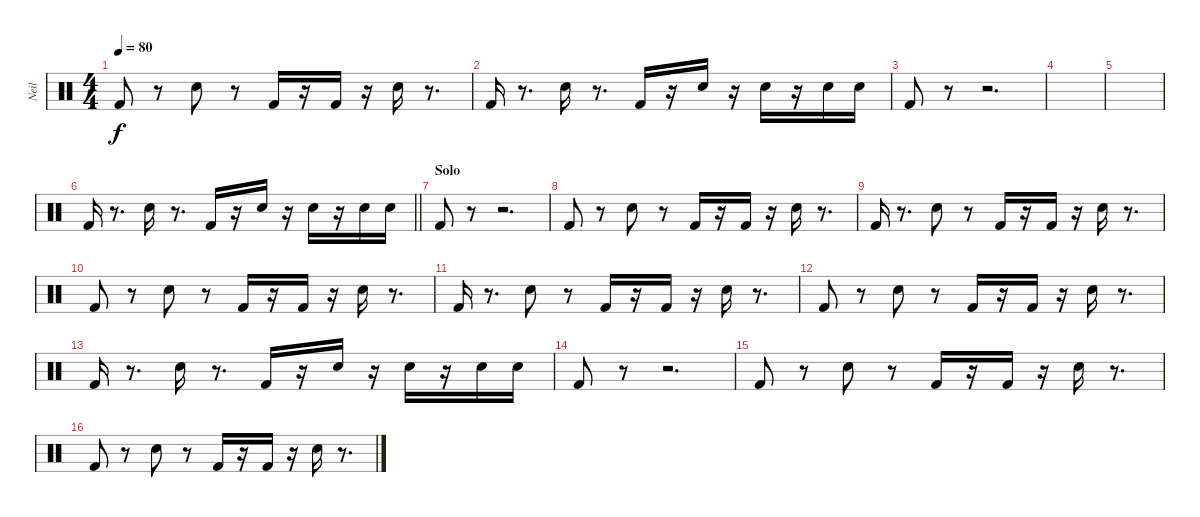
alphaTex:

\track ("Neil" "Neil") {instrument percussion}
\staff {score}
\articulation defaults
\ts (4 4)
\tempo 80
\clef neutral
\ks c "Kick (hit) 2".8{dy f}
r.8 "Electric Snare (hit)".8 r.8 "Kick (hit) 2".16 r.16 "Kick (hit) 2".16 r.16 "Electric Snare (hit)".16 r.8{d} |
"Kick (hit) 2".16 r.8{d} "Electric Snare (hit)".16 r.8{d} "Kick (hit) 2".16 r.16 "Electric Snare (hit)".16 r.16 "Electric Snare (hit)".16 r.16 "Electric Snare (hit)".16 "Electric Snare (hit)".16 |
"Kick (hit) 2".8 r.8 r.2{d} |
|
|
\barLineRight lightlight "Kick (hit) 2".16
r.8{d} "Electric Snare (hit)".16 r.8{d} "Kick (hit) 2".16 r.16 "Electric Snare (hit)".16 r.16 "Electric Snare (hit)".16 r.16 "Electric Snare (hit)".16 "Electric Snare (hit)".16 |
\section ("" "Solo")
"Kick (hit) 2".8 r.8 r.2{d} |
"Kick (hit) 2".8 r.8 "Electric Snare (hit)".8 r.8 "Kick (hit) 2".16 r.16 "Kick (hit) 2".16 r.16 "Electric Snare (hit)".16 r.8{d} |
"Kick (hit) 2".16 r.8{d} "Electric Snare (hit)".8 r.8 "Kick (hit) 2".16 r.16 "Kick (hit) 2".16 r.16 "Electric Snare (hit)".16 r.8{d} |
"Kick (hit) 2".8 r.8 "Electric Snare (hit)".8 r.8 "Kick (hit) 2".16 r.16 "Kick (hit) 2".16 r.16 "Electric Snare (hit)".16 r.8{d} |
"Kick (hit) 2".16 r.8{d} "Electric Snare (hit)".8 r.8 "Kick (hit) 2".16 r.16 "Kick (hit) 2".16 r.16 "Electric Snare (hit)".16 r.8{d} |
"Kick (hit) 2".8 r.8 "Electric Snare (hit)".8 r.8 "Kick (hit) 2".16 r.16 "Kick (hit) 2".16 r.16 "Electric Snare (hit)".16 r.8{d} |
"Kick (hit) 2".16 r.8{d} "Electric Snare (hit)".16 r.8{d} "Kick (hit) 2".16 r.16 "Electric Snare (hit)".16 r.16 "Electric Snare (hit)".16 r.16 "Electric Snare (hit)".16 "Electric Snare (hit)".16 |
"Kick (hit) 2".8 r.8 r.2{d} |
"Kick (hit) 2".8 r.8 "Electric Snare (hit)".8 r.8 "Kick (hit) 2".16 r.16 "Kick (hit) 2".16 r.16 "Electric Snare (hit)".16 r.8{d} |
"Kick (hit) 2".8 r.8 "Electric Snare (hit)".8 r.8 "Kick (hit) 2".16 r.16 "Kick (hit) 2".16 r.16 "Electric Snare (hit)".16 r.8{d}
